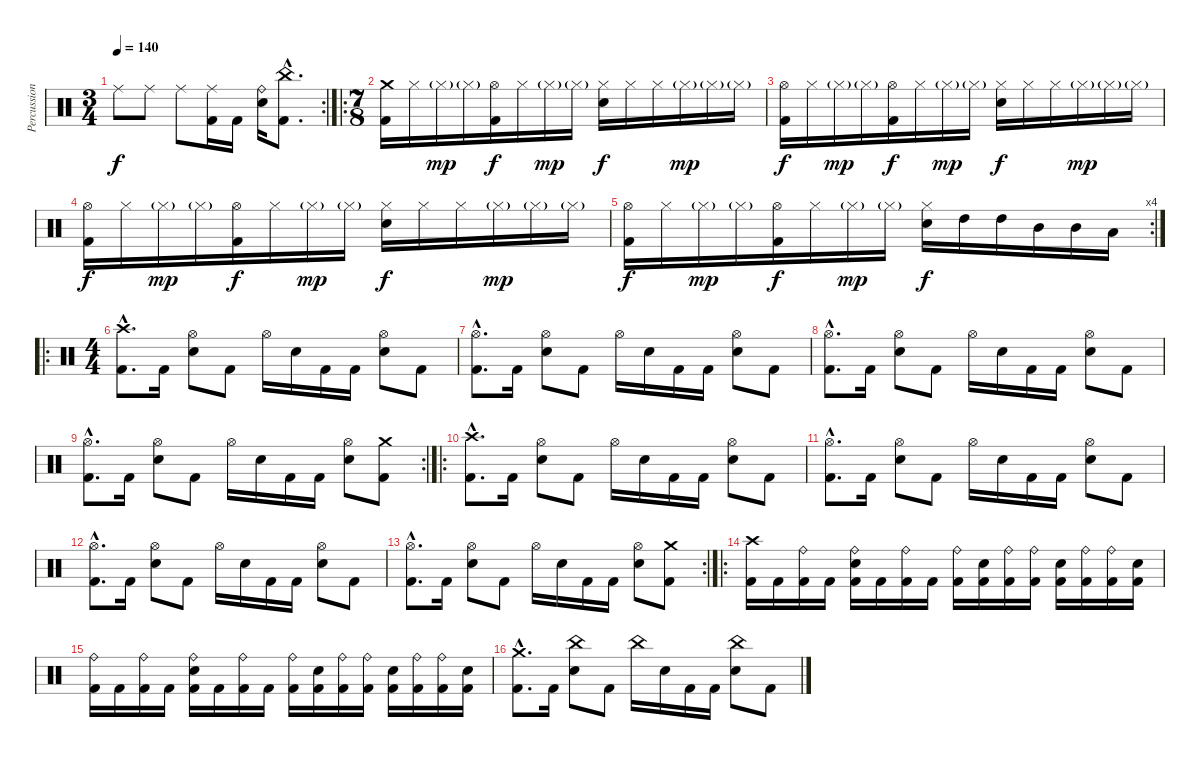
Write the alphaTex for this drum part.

\track ("Percussions" "Percussion") {instrument percussion}
\staff {score}
\articulation defaults
\rc 2
\ts (3 4)
\tempo 140
\clef neutral
\ks c "Ride (middle)".8{dy f} "Ride (middle)".8 "Ride (middle)".8
("Ride (middle)" "Kick (hit) 2").16 "Kick (hit) 2".16 ("Ride (bell)" "Electric Snare (hit)").16 ("China (hit)"{hac} "Kick (hit) 2"{hac}).8{d} |
\ro
\ts (7 8)
("Crash medium (hit)" "Kick (hit) 2").16 "Hi-Hat (closed)".16 "Hi-Hat (closed)"{g}.16{dy mp} "Hi-Hat (closed)"{g}.16 ("Hi-Hat (open)" "Kick (hit) 2").16{dy f} "Hi-Hat (closed)".16 "Hi-Hat (closed)"{g}.16{dy mp} "Hi-Hat (closed)"{g}.16 ("Hi-Hat (closed)" "Electric Snare (hit)").16{dy f} "Hi-Hat (closed)".16 "Hi-Hat (closed)".16 "Hi-Hat (closed)"{g}.16{dy mp} "Hi-Hat (closed)"{g}.16 "Hi-Hat (closed)"{g}.16 |
("Hi-Hat (open)" "Kick (hit) 2").16{dy f} "Hi-Hat (closed)".16 "Hi-Hat (closed)"{g}.16{dy mp} "Hi-Hat (closed)"{g}.16 ("Hi-Hat (open)" "Kick (hit) 2").16{dy f} "Hi-Hat (closed)".16 "Hi-Hat (closed)"{g}.16{dy mp} "Hi-Hat (closed)"{g}.16 ("Hi-Hat (closed)" "Electric Snare (hit)").16{dy f} "Hi-Hat (closed)".16 "Hi-Hat (closed)".16 "Hi-Hat (closed)"{g}.16{dy mp} "Hi-Hat (closed)"{g}.16 "Hi-Hat (closed)"{g}.16 |
("Hi-Hat (open)" "Kick (hit) 2").16{dy f} "Hi-Hat (closed)".16 "Hi-Hat (closed)"{g}.16{dy mp} "Hi-Hat (closed)"{g}.16 ("Hi-Hat (open)" "Kick (hit) 2").16{dy f} "Hi-Hat (closed)".16 "Hi-Hat (closed)"{g}.16{dy mp} "Hi-Hat (closed)"{g}.16 ("Hi-Hat (closed)" "Electric Snare (hit)").16{dy f} "Hi-Hat (closed)".16 "Hi-Hat (closed)".16 "Hi-Hat (closed)"{g}.16{dy mp} "Hi-Hat (closed)"{g}.16 "Hi-Hat (closed)"{g}.16 |
\rc 4
("Hi-Hat (open)" "Kick (hit) 2").16{dy f} "Hi-Hat (closed)".16 "Hi-Hat (closed)"{g}.16{dy mp} "Hi-Hat (closed)"{g}.16 ("Hi-Hat (open)" "Kick (hit) 2").16{dy f} "Hi-Hat (closed)".16 "Hi-Hat (closed)"{g}.16{dy mp} "Hi-Hat (closed)"{g}.16 ("Hi-Hat (closed)" "Electric Snare (hit)").16{dy f} "High Tom (hit)".16 "High Tom (hit)".16 "Mid Tom (hit)".16 "Mid Tom (hit)".16 "Low Tom (hit)".16 |
\ro
\ts (4 4)
("Crash high (hit)"{hac} "Kick (hit) 2"{hac}).8{d} "Kick (hit) 2".16 ("Hi-Hat (open)" "Electric Snare (hit)").8 "Kick (hit) 2".8 "Hi-Hat (open)".16 "Electric Snare (hit)".16 "Kick (hit) 2".16 "Kick (hit) 2".16 ("Hi-Hat (open)" "Electric Snare (hit)").8 "Kick (hit) 2".8 |
("Hi-Hat (open)"{hac} "Kick (hit) 2"{hac}).8{d} "Kick (hit) 2".16 ("Hi-Hat (open)" "Electric Snare (hit)").8 "Kick (hit) 2".8 "Hi-Hat (open)".16 "Electric Snare (hit)".16 "Kick (hit) 2".16 "Kick (hit) 2".16 ("Hi-Hat (open)" "Electric Snare (hit)").8 "Kick (hit) 2".8 |
("Hi-Hat (open)"{hac} "Kick (hit) 2"{hac}).8{d} "Kick (hit) 2".16 ("Hi-Hat (open)" "Electric Snare (hit)").8 "Kick (hit) 2".8 "Hi-Hat (open)".16 "Electric Snare (hit)".16 "Kick (hit) 2".16 "Kick (hit) 2".16 ("Hi-Hat (open)" "Electric Snare (hit)").8 "Kick (hit) 2".8 |
\rc 2
("Hi-Hat (open)"{hac} "Kick (hit) 2"{hac}).8{d} "Kick (hit) 2".16 ("Hi-Hat (open)" "Electric Snare (hit)").8 "Kick (hit) 2".8 "Hi-Hat (open)".16 "Electric Snare (hit)".16 "Kick (hit) 2".16 "Kick (hit) 2".16 ("Hi-Hat (open)" "Electric Snare (hit)").8 ("Crash medium (hit)" "Kick (hit) 2").8 |
\ro
("Crash high (hit)"{hac} "Kick (hit) 2"{hac}).8{d} "Kick (hit) 2".16 ("Hi-Hat (open)" "Electric Snare (hit)").8 "Kick (hit) 2".8 "Hi-Hat (open)".16 "Electric Snare (hit)".16 "Kick (hit) 2".16 "Kick (hit) 2".16 ("Hi-Hat (open)" "Electric Snare (hit)").8 "Kick (hit) 2".8 |
("Hi-Hat (open)"{hac} "Kick (hit) 2"{hac}).8{d} "Kick (hit) 2".16 ("Hi-Hat (open)" "Electric Snare (hit)").8 "Kick (hit) 2".8 "Hi-Hat (open)".16 "Electric Snare (hit)".16 "Kick (hit) 2".16 "Kick (hit) 2".16 ("Hi-Hat (open)" "Electric Snare (hit)").8 "Kick (hit) 2".8 |
("Hi-Hat (open)"{hac} "Kick (hit) 2"{hac}).8{d} "Kick (hit) 2".16 ("Hi-Hat (open)" "Electric Snare (hit)").8 "Kick (hit) 2".8 "Hi-Hat (open)".16 "Electric Snare (hit)".16 "Kick (hit) 2".16 "Kick (hit) 2".16 ("Hi-Hat (open)" "Electric Snare (hit)").8 "Kick (hit) 2".8 |
\rc 2
("Hi-Hat (open)"{hac} "Kick (hit) 2"{hac}).8{d} "Kick (hit) 2".16 ("Hi-Hat (open)" "Electric Snare (hit)").8 "Kick (hit) 2".8 "Hi-Hat (open)".16 "Electric Snare (hit)".16 "Kick (hit) 2".16 "Kick (hit) 2".16 ("Hi-Hat (open)" "Electric Snare (hit)").8 ("Crash medium (hit)" "Kick (hit) 2").8 |
\ro
("Crash high (hit)" "Kick (hit) 2").16 "Kick (hit) 2".16 ("Ride (bell)" "Kick (hit) 2").16 "Kick (hit) 2".16 ("Ride (bell)" "Electric Snare (hit)" "Kick (hit) 2").16 "Kick (hit) 2".16 ("Ride (bell)" "Kick (hit) 2").16 "Kick (hit) 2".16 ("Ride (bell)" "Kick (hit) 2").16 ("Electric Snare (hit)" "Kick (hit) 2").16 ("Ride (bell)" "Kick (hit) 2").16 ("Ride (bell)" "Kick (hit) 2").16 ("Electric Snare (hit)" "Kick (hit) 2").16 ("Ride (bell)" "Kick (hit) 2").16 ("Ride (bell)" "Kick (hit) 2").16 ("Electric Snare (hit)" "Kick (hit) 2").16 |
("Ride (bell)" "Kick (hit) 2").16 "Kick (hit) 2".16 ("Ride (bell)" "Kick (hit) 2").16 "Kick (hit) 2".16 ("Ride (bell)" "Electric Snare (hit)" "Kick (hit) 2").16 "Kick (hit) 2".16 ("Ride (bell)" "Kick (hit) 2").16 "Kick (hit) 2".16 ("Ride (bell)" "Kick (hit) 2").16 ("Electric Snare (hit)" "Kick (hit) 2").16 ("Ride (bell)" "Kick (hit) 2").16 ("Ride (bell)" "Kick (hit) 2").16 ("Electric Snare (hit)" "Kick (hit) 2").16 ("Ride (bell)" "Kick (hit) 2").16 ("Ride (bell)" "Kick (hit) 2").16 ("Electric Snare (hit)" "Kick (hit) 2").16 |
("Crash medium (hit)"{hac} "Kick (hit) 2"{hac}).8{d} "Kick (hit) 2".16 ("China (hit)" "Electric Snare (hit)").8 "Kick (hit) 2".8 "China (hit)".16 "Electric Snare (hit)".16 "Kick (hit) 2".16 "Kick (hit) 2".16 ("China (hit)" "Electric Snare (hit)").8 "Kick (hit) 2".8
